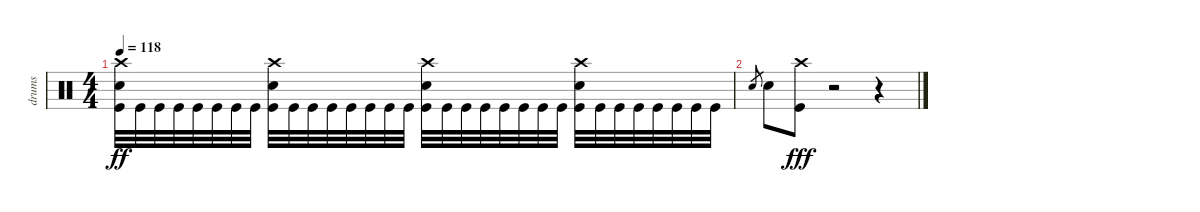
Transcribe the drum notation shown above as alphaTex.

\track ("drums" "drums") {instrument percussion}
\staff {score}
\articulation defaults
\ts (4 4)
\tempo 118
\clef neutral
\ks c
("Crash high (hit)" "Electric Snare (hit)" "Kick (hit)").32{dy ff} "Kick (hit)".32 "Kick (hit)".32 "Kick (hit)".32 "Kick (hit)".32 "Kick (hit)".32 "Kick (hit)".32 "Kick (hit)".32 ("Crash high (hit)" "Electric Snare (hit)" "Kick (hit)").32 "Kick (hit)".32 "Kick (hit)".32 "Kick (hit)".32 "Kick (hit)".32 "Kick (hit)".32 "Kick (hit)".32 "Kick (hit)".32 ("Crash high (hit)" "Electric Snare (hit)" "Kick (hit)").32 "Kick (hit)".32 "Kick (hit)".32 "Kick (hit)".32 "Kick (hit)".32 "Kick (hit)".32 "Kick (hit)".32 "Kick (hit)".32 ("Crash high (hit)" "Electric Snare (hit)" "Kick (hit)").32 "Kick (hit)".32 "Kick (hit)".32 "Kick (hit)".32 "Kick (hit)".32 "Kick (hit)".32 "Kick (hit)".32 "Kick (hit)".32 |
"Electric Snare (hit)".8{gr} "Electric Snare (hit)".8 ("Crash high (hit)" "Kick (hit)").8{dy fff} r.2 r.4
